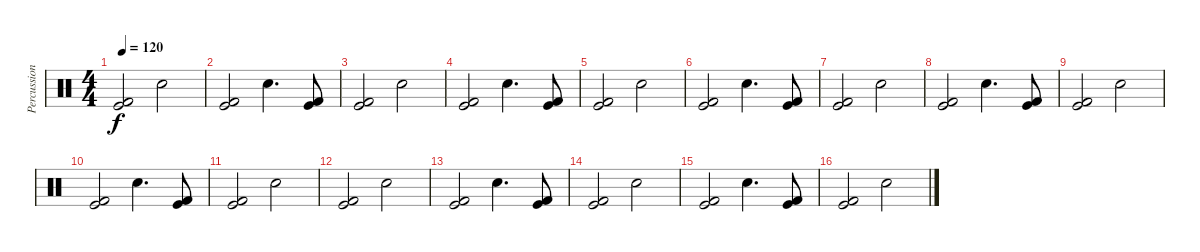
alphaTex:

\track ("Percussion" "Percussion") {instrument percussion}
\staff {score}
\articulation defaults
\ts (4 4)
\tempo 120
\clef neutral
\ks c
("Kick (hit) 2" "Kick (hit)").2{dy f} "Electric Snare (hit)".2 |
("Kick (hit) 2" "Kick (hit)").2 "Electric Snare (hit)".4{d} ("Kick (hit) 2" "Kick (hit)").8 |
("Kick (hit) 2" "Kick (hit)").2 "Electric Snare (hit)".2 |
("Kick (hit) 2" "Kick (hit)").2 "Electric Snare (hit)".4{d} ("Kick (hit) 2" "Kick (hit)").8 |
("Kick (hit) 2" "Kick (hit)").2 "Electric Snare (hit)".2 |
("Kick (hit) 2" "Kick (hit)").2 "Electric Snare (hit)".4{d} ("Kick (hit) 2" "Kick (hit)").8 |
("Kick (hit) 2" "Kick (hit)").2 "Electric Snare (hit)".2 |
("Kick (hit) 2" "Kick (hit)").2 "Electric Snare (hit)".4{d} ("Kick (hit) 2" "Kick (hit)").8 |
("Kick (hit) 2" "Kick (hit)").2 "Electric Snare (hit)".2 |
("Kick (hit) 2" "Kick (hit)").2 "Electric Snare (hit)".4{d} ("Kick (hit) 2" "Kick (hit)").8 |
("Kick (hit) 2" "Kick (hit)").2 "Electric Snare (hit)".2 |
("Kick (hit) 2" "Kick (hit)").2 "Electric Snare (hit)".2 |
("Kick (hit) 2" "Kick (hit)").2 "Electric Snare (hit)".4{d} ("Kick (hit) 2" "Kick (hit)").8 |
("Kick (hit) 2" "Kick (hit)").2 "Electric Snare (hit)".2 |
("Kick (hit) 2" "Kick (hit)").2 "Electric Snare (hit)".4{d} ("Kick (hit) 2" "Kick (hit)").8 |
("Kick (hit) 2" "Kick (hit)").2 "Electric Snare (hit)".2
